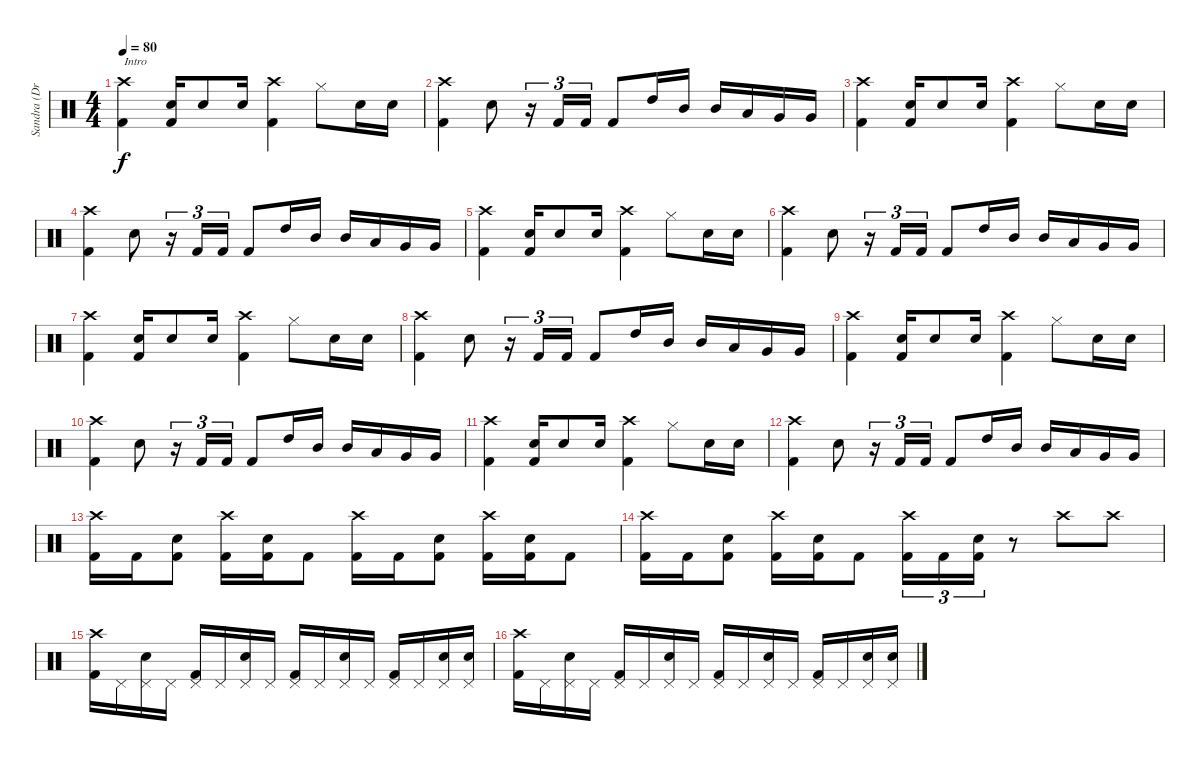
\track ("Sandra (Drums)" "Sandra (Dr") {instrument percussion}
\staff {score}
\articulation defaults
\ts (4 4)
\tempo 80
\clef neutral
\ks c
("Crash high (hit)" "Kick (hit) 2").4{txt "Intro" dy f} ("Snare (hit) 2" "Kick (hit) 2").16 "Snare (hit) 2".8 "Snare (hit) 2".16 ("Crash high (hit)" "Kick (hit) 2").4 "Hi-Hat (closed)".8 "Snare (hit) 2".16 "Snare (hit) 2".16 |
("Crash high (hit)" "Kick (hit) 2").4 "Snare (hit) 2".8 r.16{tu (3 2)} "Kick (hit) 2".16{tu (3 2)} "Kick (hit) 2".16{tu (3 2)} "Kick (hit) 2".8 "High Tom (hit)".16 "Mid Tom (hit)".16 "Mid Tom (hit)".16 "Low Tom (hit)".16 "Very Low Tom (hit)".16 "Very Low Tom (hit)".16 |
("Crash high (hit)" "Kick (hit) 2").4 ("Snare (hit) 2" "Kick (hit) 2").16 "Snare (hit) 2".8 "Snare (hit) 2".16 ("Crash high (hit)" "Kick (hit) 2").4 "Hi-Hat (closed)".8 "Snare (hit) 2".16 "Snare (hit) 2".16 |
("Crash high (hit)" "Kick (hit) 2").4 "Snare (hit) 2".8 r.16{tu (3 2)} "Kick (hit) 2".16{tu (3 2)} "Kick (hit) 2".16{tu (3 2)} "Kick (hit) 2".8 "High Tom (hit)".16 "Mid Tom (hit)".16 "Mid Tom (hit)".16 "Low Tom (hit)".16 "Very Low Tom (hit)".16 "Very Low Tom (hit)".16 |
("Crash high (hit)" "Kick (hit) 2").4 ("Snare (hit) 2" "Kick (hit) 2").16 "Snare (hit) 2".8 "Snare (hit) 2".16 ("Crash high (hit)" "Kick (hit) 2").4 "Hi-Hat (closed)".8 "Snare (hit) 2".16 "Snare (hit) 2".16 |
("Crash high (hit)" "Kick (hit) 2").4 "Snare (hit) 2".8 r.16{tu (3 2)} "Kick (hit) 2".16{tu (3 2)} "Kick (hit) 2".16{tu (3 2)} "Kick (hit) 2".8 "High Tom (hit)".16 "Mid Tom (hit)".16 "Mid Tom (hit)".16 "Low Tom (hit)".16 "Very Low Tom (hit)".16 "Very Low Tom (hit)".16 |
("Crash high (hit)" "Kick (hit) 2").4 ("Snare (hit) 2" "Kick (hit) 2").16 "Snare (hit) 2".8 "Snare (hit) 2".16 ("Crash high (hit)" "Kick (hit) 2").4 "Hi-Hat (closed)".8 "Snare (hit) 2".16 "Snare (hit) 2".16 |
("Crash high (hit)" "Kick (hit) 2").4 "Snare (hit) 2".8 r.16{tu (3 2)} "Kick (hit) 2".16{tu (3 2)} "Kick (hit) 2".16{tu (3 2)} "Kick (hit) 2".8 "High Tom (hit)".16 "Mid Tom (hit)".16 "Mid Tom (hit)".16 "Low Tom (hit)".16 "Very Low Tom (hit)".16 "Very Low Tom (hit)".16 |
("Crash high (hit)" "Kick (hit) 2").4 ("Snare (hit) 2" "Kick (hit) 2").16 "Snare (hit) 2".8 "Snare (hit) 2".16 ("Crash high (hit)" "Kick (hit) 2").4 "Hi-Hat (closed)".8 "Snare (hit) 2".16 "Snare (hit) 2".16 |
("Crash high (hit)" "Kick (hit) 2").4 "Snare (hit) 2".8 r.16{tu (3 2)} "Kick (hit) 2".16{tu (3 2)} "Kick (hit) 2".16{tu (3 2)} "Kick (hit) 2".8 "High Tom (hit)".16 "Mid Tom (hit)".16 "Mid Tom (hit)".16 "Low Tom (hit)".16 "Very Low Tom (hit)".16 "Very Low Tom (hit)".16 |
("Crash high (hit)" "Kick (hit) 2").4 ("Snare (hit) 2" "Kick (hit) 2").16 "Snare (hit) 2".8 "Snare (hit) 2".16 ("Crash high (hit)" "Kick (hit) 2").4 "Hi-Hat (closed)".8 "Snare (hit) 2".16 "Snare (hit) 2".16 |
("Crash high (hit)" "Kick (hit) 2").4 "Snare (hit) 2".8 r.16{tu (3 2)} "Kick (hit) 2".16{tu (3 2)} "Kick (hit) 2".16{tu (3 2)} "Kick (hit) 2".8 "High Tom (hit)".16 "Mid Tom (hit)".16 "Mid Tom (hit)".16 "Low Tom (hit)".16 "Very Low Tom (hit)".16 "Very Low Tom (hit)".16 |
("Crash high (hit)" "Kick (hit) 2").16 "Kick (hit) 2".16 ("Kick (hit) 2" "Snare (hit) 2").8 ("Crash high (hit)" "Kick (hit) 2").16 ("Kick (hit) 2" "Snare (hit) 2").16 "Kick (hit) 2".8 ("Crash high (hit)" "Kick (hit) 2").16 "Kick (hit) 2".16 ("Kick (hit) 2" "Snare (hit) 2").8 ("Crash high (hit)" "Kick (hit) 2").16 ("Kick (hit) 2" "Snare (hit) 2").16 "Kick (hit) 2".8 |
("Crash high (hit)" "Kick (hit) 2").16 "Kick (hit) 2".16 ("Kick (hit) 2" "Snare (hit) 2").8 ("Crash high (hit)" "Kick (hit) 2").16 ("Kick (hit) 2" "Snare (hit) 2").16 "Kick (hit) 2".8 ("Crash high (hit)" "Kick (hit) 2").16{tu (3 2)} "Kick (hit) 2".16{tu (3 2)} ("Kick (hit) 2" "Snare (hit) 2").16{tu (3 2)} r.8 "Crash high (hit)".8 "Crash high (hit)".8 |
("Crash high (hit)" "Kick (hit) 2").16 "Pedal Hi-Hat (hit)".16 ("Pedal Hi-Hat (hit)" "Snare (hit) 2").16 "Pedal Hi-Hat (hit)".16 ("Pedal Hi-Hat (hit)" "Kick (hit) 2").16 "Pedal Hi-Hat (hit)".16 ("Pedal Hi-Hat (hit)" "Snare (hit) 2").16 "Pedal Hi-Hat (hit)".16 ("Pedal Hi-Hat (hit)" "Kick (hit) 2").16 "Pedal Hi-Hat (hit)".16 ("Pedal Hi-Hat (hit)" "Snare (hit) 2").16 "Pedal Hi-Hat (hit)".16 ("Pedal Hi-Hat (hit)" "Kick (hit) 2").16 "Pedal Hi-Hat (hit)".16 ("Pedal Hi-Hat (hit)" "Snare (hit) 2").16 ("Pedal Hi-Hat (hit)" "Snare (hit) 2").16 |
("Crash high (hit)" "Kick (hit) 2").16 "Pedal Hi-Hat (hit)".16 ("Pedal Hi-Hat (hit)" "Snare (hit) 2").16 "Pedal Hi-Hat (hit)".16 ("Pedal Hi-Hat (hit)" "Kick (hit) 2").16 "Pedal Hi-Hat (hit)".16 ("Pedal Hi-Hat (hit)" "Snare (hit) 2").16 "Pedal Hi-Hat (hit)".16 ("Pedal Hi-Hat (hit)" "Kick (hit) 2").16 "Pedal Hi-Hat (hit)".16 ("Pedal Hi-Hat (hit)" "Snare (hit) 2").16 "Pedal Hi-Hat (hit)".16 ("Pedal Hi-Hat (hit)" "Kick (hit) 2").16 "Pedal Hi-Hat (hit)".16 ("Pedal Hi-Hat (hit)" "Snare (hit) 2").16 ("Pedal Hi-Hat (hit)" "Snare (hit) 2").16
